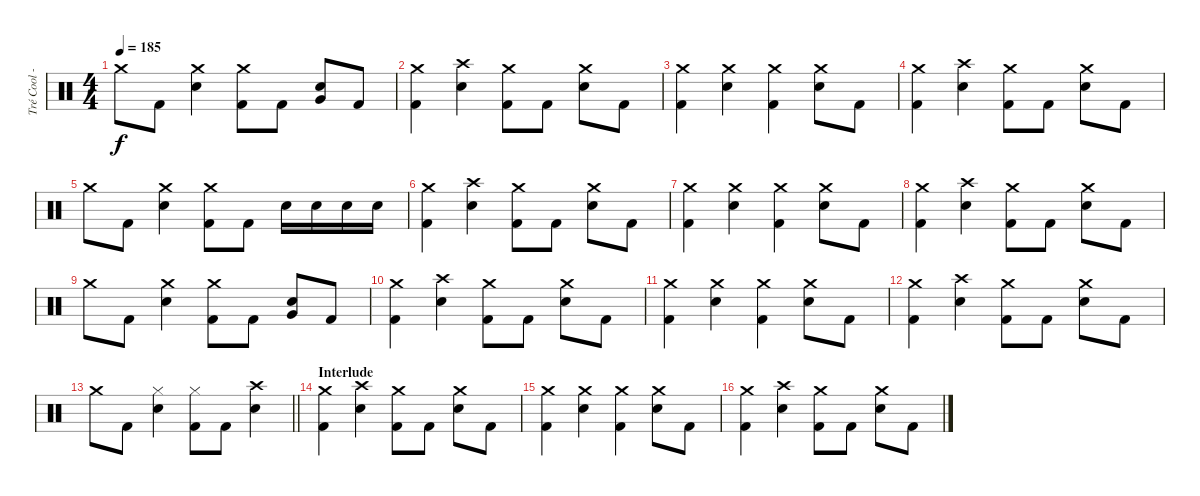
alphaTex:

\track ("Tré Cool - Drums" "Tré Cool -") {instrument percussion}
\staff {score}
\articulation defaults
\ts (4 4)
\tempo 185
\clef neutral
\ks c "Crash medium (hit)".8{dy f} "Kick (hit) 2".8
("Crash medium (hit)" "Electric Snare (hit)").4 ("Crash medium (hit)" "Kick (hit) 2").8 "Kick (hit) 2".8 ("Very Low Tom (hit)" "Electric Snare (hit)").8 "Kick (hit) 2".8 |
("Crash medium (hit)" "Kick (hit) 2").4 ("Crash high (hit)" "Electric Snare (hit)").4 ("Crash medium (hit)" "Kick (hit) 2").8 "Kick (hit) 2".8 ("Crash medium (hit)" "Electric Snare (hit)").8 "Kick (hit) 2".8 |
("Crash medium (hit)" "Kick (hit) 2").4 ("Crash medium (hit)" "Electric Snare (hit)").4 ("Crash medium (hit)" "Kick (hit) 2").4 ("Crash medium (hit)" "Electric Snare (hit)").8 "Kick (hit) 2".8 |
("Crash medium (hit)" "Kick (hit) 2").4 ("Crash high (hit)" "Electric Snare (hit)").4 ("Crash medium (hit)" "Kick (hit) 2").8 "Kick (hit) 2".8 ("Crash medium (hit)" "Electric Snare (hit)").8 "Kick (hit) 2".8 |
"Crash medium (hit)".8 "Kick (hit) 2".8 ("Crash medium (hit)" "Electric Snare (hit)").4 ("Crash medium (hit)" "Kick (hit) 2").8 "Kick (hit) 2".8 "Electric Snare (hit)".16 "Electric Snare (hit)".16 "Electric Snare (hit)".16 "Electric Snare (hit)".16 |
("Crash medium (hit)" "Kick (hit) 2").4 ("Crash high (hit)" "Electric Snare (hit)").4 ("Crash medium (hit)" "Kick (hit) 2").8 "Kick (hit) 2".8 ("Crash medium (hit)" "Electric Snare (hit)").8 "Kick (hit) 2".8 |
("Crash medium (hit)" "Kick (hit) 2").4 ("Crash medium (hit)" "Electric Snare (hit)").4 ("Crash medium (hit)" "Kick (hit) 2").4 ("Crash medium (hit)" "Electric Snare (hit)").8 "Kick (hit) 2".8 |
("Crash medium (hit)" "Kick (hit) 2").4 ("Crash high (hit)" "Electric Snare (hit)").4 ("Crash medium (hit)" "Kick (hit) 2").8 "Kick (hit) 2".8 ("Crash medium (hit)" "Electric Snare (hit)").8 "Kick (hit) 2".8 |
"Crash medium (hit)".8 "Kick (hit) 2".8 ("Crash medium (hit)" "Electric Snare (hit)").4 ("Crash medium (hit)" "Kick (hit) 2").8 "Kick (hit) 2".8 ("Very Low Tom (hit)" "Electric Snare (hit)").8 "Kick (hit) 2".8 |
("Crash medium (hit)" "Kick (hit) 2").4 ("Crash high (hit)" "Electric Snare (hit)").4 ("Crash medium (hit)" "Kick (hit) 2").8 "Kick (hit) 2".8 ("Crash medium (hit)" "Electric Snare (hit)").8 "Kick (hit) 2".8 |
("Crash medium (hit)" "Kick (hit) 2").4 ("Crash medium (hit)" "Electric Snare (hit)").4 ("Crash medium (hit)" "Kick (hit) 2").4 ("Crash medium (hit)" "Electric Snare (hit)").8 "Kick (hit) 2".8 |
("Crash medium (hit)" "Kick (hit) 2").4 ("Crash high (hit)" "Electric Snare (hit)").4 ("Crash medium (hit)" "Kick (hit) 2").8 "Kick (hit) 2".8 ("Crash medium (hit)" "Electric Snare (hit)").8 "Kick (hit) 2".8 |
\barLineRight lightlight "Crash medium (hit)".8 "Kick (hit) 2".8
("Hi-Hat (closed)" "Electric Snare (hit)").4 ("Hi-Hat (closed)" "Kick (hit) 2").8 "Kick (hit) 2".8 ("Crash high (hit)" "Electric Snare (hit)").4 |
\section ("" "Interlude")
("Crash medium (hit)" "Kick (hit) 2").4 ("Crash high (hit)" "Electric Snare (hit)").4 ("Crash medium (hit)" "Kick (hit) 2").8 "Kick (hit) 2".8 ("Crash medium (hit)" "Electric Snare (hit)").8 "Kick (hit) 2".8 |
("Crash medium (hit)" "Kick (hit) 2").4 ("Crash medium (hit)" "Electric Snare (hit)").4 ("Crash medium (hit)" "Kick (hit) 2").4 ("Crash medium (hit)" "Electric Snare (hit)").8 "Kick (hit) 2".8 |
("Crash medium (hit)" "Kick (hit) 2").4 ("Crash high (hit)" "Electric Snare (hit)").4 ("Crash medium (hit)" "Kick (hit) 2").8 "Kick (hit) 2".8 ("Crash medium (hit)" "Electric Snare (hit)").8 "Kick (hit) 2".8
